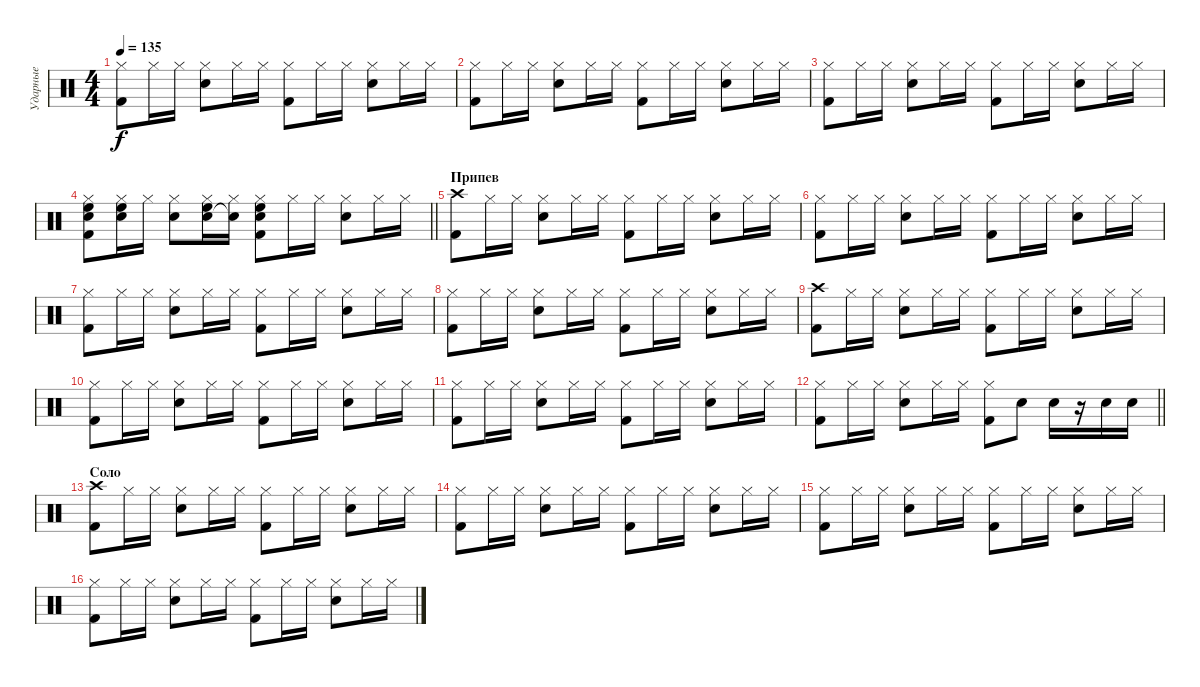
\track ("Ударные" "Ударные") {instrument percussion}
\staff {score}
\articulation defaults
\ts (4 4)
\tempo 135
\clef neutral
\ks c
("Hi-Hat (closed)" "Kick (hit) 2").8{dy f} "Hi-Hat (closed)".16 "Hi-Hat (closed)".16 ("Hi-Hat (closed)" "Electric Snare (hit)").8 "Hi-Hat (closed)".16 "Hi-Hat (closed)".16 ("Hi-Hat (closed)" "Kick (hit) 2").8 "Hi-Hat (closed)".16 "Hi-Hat (closed)".16 ("Hi-Hat (closed)" "Electric Snare (hit)").8 "Hi-Hat (closed)".16 "Hi-Hat (closed)".16 |
("Hi-Hat (closed)" "Kick (hit) 2").8 "Hi-Hat (closed)".16 "Hi-Hat (closed)".16 ("Hi-Hat (closed)" "Electric Snare (hit)").8 "Hi-Hat (closed)".16 "Hi-Hat (closed)".16 ("Hi-Hat (closed)" "Kick (hit) 2").8 "Hi-Hat (closed)".16 "Hi-Hat (closed)".16 ("Hi-Hat (closed)" "Electric Snare (hit)").8 "Hi-Hat (closed)".16 "Hi-Hat (closed)".16 |
("Hi-Hat (closed)" "Kick (hit) 2").8 "Hi-Hat (closed)".16 "Hi-Hat (closed)".16 ("Hi-Hat (closed)" "Electric Snare (hit)").8 "Hi-Hat (closed)".16 "Hi-Hat (closed)".16 ("Hi-Hat (closed)" "Kick (hit) 2").8 "Hi-Hat (closed)".16 "Hi-Hat (closed)".16 ("Hi-Hat (closed)" "Electric Snare (hit)").8 "Hi-Hat (closed)".16 "Hi-Hat (closed)".16 |
\barLineRight lightlight
("Hi-Hat (closed)" "Kick (hit) 2" "Snare (hit) 2" "High Floor Tom (hit)").8 ("Hi-Hat (closed)" "Snare (hit) 2" "High Floor Tom (hit)").16 "Hi-Hat (closed)".16 ("Hi-Hat (closed)" "Electric Snare (hit)").8 ("Hi-Hat (closed)" "Snare (hit) 2" "High Floor Tom (hit)").16 ("Hi-Hat (closed)" "Snare (hit)"{t}).16 ("Hi-Hat (closed)" "Kick (hit) 2" "Snare (hit) 2" "High Floor Tom (hit)").8 "Hi-Hat (closed)".16 "Hi-Hat (closed)".16 ("Hi-Hat (closed)" "Electric Snare (hit)").8 "Hi-Hat (closed)".16 "Hi-Hat (closed)".16 |
\section ("" "Припев")
("Crash high (hit)" "Kick (hit) 2").8 "Hi-Hat (closed)".16 "Hi-Hat (closed)".16 ("Hi-Hat (closed)" "Electric Snare (hit)").8 "Hi-Hat (closed)".16 "Hi-Hat (closed)".16 ("Hi-Hat (closed)" "Kick (hit) 2").8 "Hi-Hat (closed)".16 "Hi-Hat (closed)".16 ("Hi-Hat (closed)" "Electric Snare (hit)").8 "Hi-Hat (closed)".16 "Hi-Hat (closed)".16 |
("Hi-Hat (closed)" "Kick (hit) 2").8 "Hi-Hat (closed)".16 "Hi-Hat (closed)".16 ("Hi-Hat (closed)" "Electric Snare (hit)").8 "Hi-Hat (closed)".16 "Hi-Hat (closed)".16 ("Hi-Hat (closed)" "Kick (hit) 2").8 "Hi-Hat (closed)".16 "Hi-Hat (closed)".16 ("Hi-Hat (closed)" "Electric Snare (hit)").8 "Hi-Hat (closed)".16 "Hi-Hat (closed)".16 |
("Hi-Hat (closed)" "Kick (hit) 2").8 "Hi-Hat (closed)".16 "Hi-Hat (closed)".16 ("Hi-Hat (closed)" "Electric Snare (hit)").8 "Hi-Hat (closed)".16 "Hi-Hat (closed)".16 ("Hi-Hat (closed)" "Kick (hit) 2").8 "Hi-Hat (closed)".16 "Hi-Hat (closed)".16 ("Hi-Hat (closed)" "Electric Snare (hit)").8 "Hi-Hat (closed)".16 "Hi-Hat (closed)".16 |
("Hi-Hat (closed)" "Kick (hit) 2").8 "Hi-Hat (closed)".16 "Hi-Hat (closed)".16 ("Hi-Hat (closed)" "Electric Snare (hit)").8 "Hi-Hat (closed)".16 "Hi-Hat (closed)".16 ("Hi-Hat (closed)" "Kick (hit) 2").8 "Hi-Hat (closed)".16 "Hi-Hat (closed)".16 ("Hi-Hat (closed)" "Electric Snare (hit)").8 "Hi-Hat (closed)".16 "Hi-Hat (closed)".16 |
("Crash high (hit)" "Kick (hit) 2").8 "Hi-Hat (closed)".16 "Hi-Hat (closed)".16 ("Hi-Hat (closed)" "Electric Snare (hit)").8 "Hi-Hat (closed)".16 "Hi-Hat (closed)".16 ("Hi-Hat (closed)" "Kick (hit) 2").8 "Hi-Hat (closed)".16 "Hi-Hat (closed)".16 ("Hi-Hat (closed)" "Electric Snare (hit)").8 "Hi-Hat (closed)".16 "Hi-Hat (closed)".16 |
("Hi-Hat (closed)" "Kick (hit) 2").8 "Hi-Hat (closed)".16 "Hi-Hat (closed)".16 ("Hi-Hat (closed)" "Electric Snare (hit)").8 "Hi-Hat (closed)".16 "Hi-Hat (closed)".16 ("Hi-Hat (closed)" "Kick (hit) 2").8 "Hi-Hat (closed)".16 "Hi-Hat (closed)".16 ("Hi-Hat (closed)" "Electric Snare (hit)").8 "Hi-Hat (closed)".16 "Hi-Hat (closed)".16 |
("Hi-Hat (closed)" "Kick (hit) 2").8 "Hi-Hat (closed)".16 "Hi-Hat (closed)".16 ("Hi-Hat (closed)" "Electric Snare (hit)").8 "Hi-Hat (closed)".16 "Hi-Hat (closed)".16 ("Hi-Hat (closed)" "Kick (hit) 2").8 "Hi-Hat (closed)".16 "Hi-Hat (closed)".16 ("Hi-Hat (closed)" "Electric Snare (hit)").8 "Hi-Hat (closed)".16 "Hi-Hat (closed)".16 |
\barLineRight lightlight
("Hi-Hat (closed)" "Kick (hit) 2").8 "Hi-Hat (closed)".16 "Hi-Hat (closed)".16 ("Hi-Hat (closed)" "Electric Snare (hit)").8 "Hi-Hat (closed)".16 "Hi-Hat (closed)".16 ("Hi-Hat (closed)" "Kick (hit) 2").8 "Electric Snare (hit)".8 "Electric Snare (hit)".16 r.16 "Electric Snare (hit)".16 "Electric Snare (hit)".16 |
\section ("" "Соло")
("Crash high (hit)" "Kick (hit) 2").8 "Hi-Hat (closed)".16 "Hi-Hat (closed)".16 ("Hi-Hat (closed)" "Electric Snare (hit)").8 "Hi-Hat (closed)".16 "Hi-Hat (closed)".16 ("Hi-Hat (closed)" "Kick (hit) 2").8 "Hi-Hat (closed)".16 "Hi-Hat (closed)".16 ("Hi-Hat (closed)" "Electric Snare (hit)").8 "Hi-Hat (closed)".16 "Hi-Hat (closed)".16 |
("Hi-Hat (closed)" "Kick (hit) 2").8 "Hi-Hat (closed)".16 "Hi-Hat (closed)".16 ("Hi-Hat (closed)" "Electric Snare (hit)").8 "Hi-Hat (closed)".16 "Hi-Hat (closed)".16 ("Hi-Hat (closed)" "Kick (hit) 2").8 "Hi-Hat (closed)".16 "Hi-Hat (closed)".16 ("Hi-Hat (closed)" "Electric Snare (hit)").8 "Hi-Hat (closed)".16 "Hi-Hat (closed)".16 |
("Hi-Hat (closed)" "Kick (hit) 2").8 "Hi-Hat (closed)".16 "Hi-Hat (closed)".16 ("Hi-Hat (closed)" "Electric Snare (hit)").8 "Hi-Hat (closed)".16 "Hi-Hat (closed)".16 ("Hi-Hat (closed)" "Kick (hit) 2").8 "Hi-Hat (closed)".16 "Hi-Hat (closed)".16 ("Hi-Hat (closed)" "Electric Snare (hit)").8 "Hi-Hat (closed)".16 "Hi-Hat (closed)".16 |
("Hi-Hat (closed)" "Kick (hit) 2").8 "Hi-Hat (closed)".16 "Hi-Hat (closed)".16 ("Hi-Hat (closed)" "Electric Snare (hit)").8 "Hi-Hat (closed)".16 "Hi-Hat (closed)".16 ("Hi-Hat (closed)" "Kick (hit) 2").8 "Hi-Hat (closed)".16 "Hi-Hat (closed)".16 ("Hi-Hat (closed)" "Electric Snare (hit)").8 "Hi-Hat (closed)".16 "Hi-Hat (closed)".16
